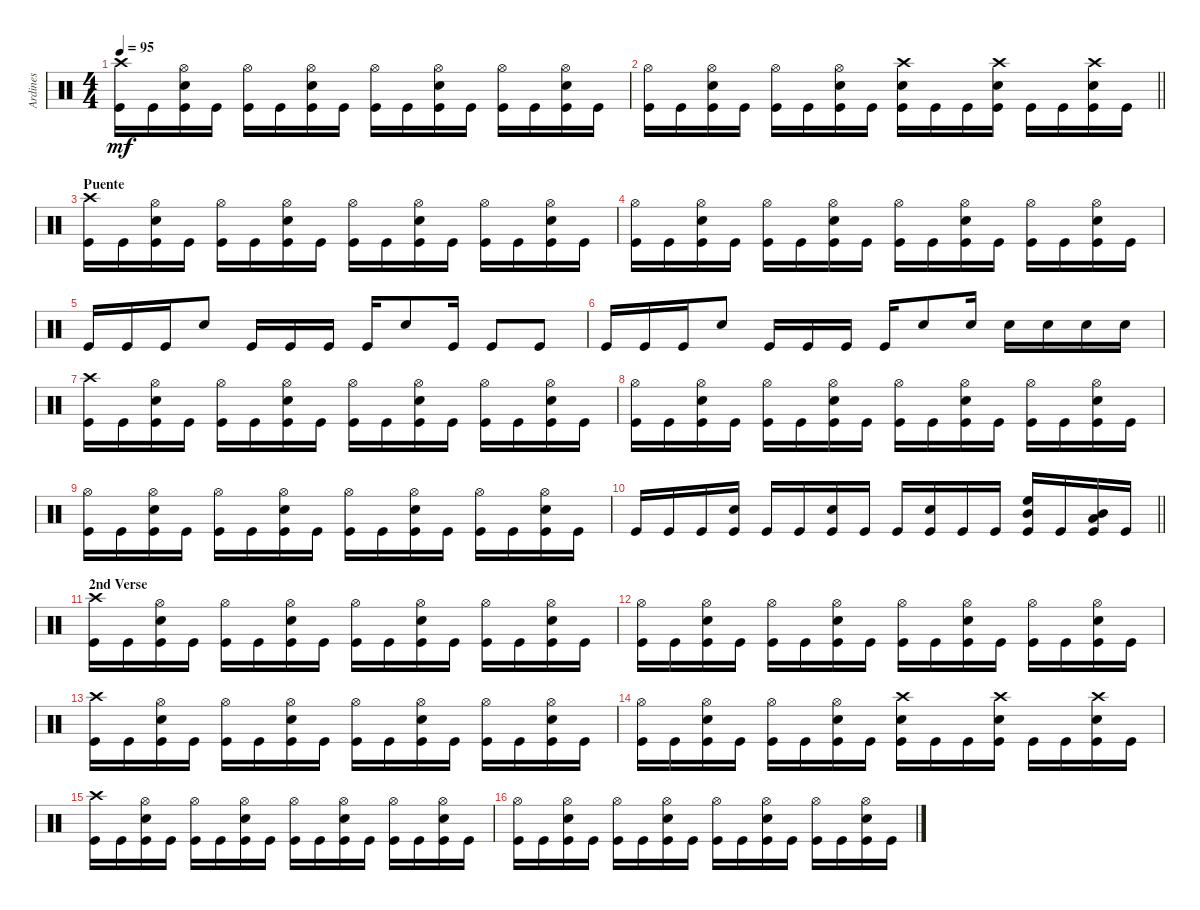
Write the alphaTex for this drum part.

\track ("Ardines" "Ardines") {instrument percussion}
\staff {score}
\articulation defaults
\ts (4 4)
\tempo 95
\clef neutral
\ks c
("Crash high (hit)" "Kick (hit)").16{dy mf} "Kick (hit)".16 ("Hi-Hat (open)" "Snare (hit) 2" "Kick (hit)").16 "Kick (hit)".16 ("Hi-Hat (open)" "Kick (hit)").16 "Kick (hit)".16 ("Hi-Hat (open)" "Snare (hit) 2" "Kick (hit)").16 "Kick (hit)".16 ("Hi-Hat (open)" "Kick (hit)").16 "Kick (hit)".16 ("Hi-Hat (open)" "Snare (hit) 2" "Kick (hit)").16 "Kick (hit)".16 ("Hi-Hat (open)" "Kick (hit)").16 "Kick (hit)".16 ("Hi-Hat (open)" "Snare (hit) 2" "Kick (hit)").16 "Kick (hit)".16 |
\barLineRight lightlight
("Hi-Hat (open)" "Kick (hit)").16 "Kick (hit)".16 ("Hi-Hat (open)" "Snare (hit) 2" "Kick (hit)").16 "Kick (hit)".16 ("Hi-Hat (open)" "Kick (hit)").16 "Kick (hit)".16 ("Hi-Hat (open)" "Snare (hit) 2" "Kick (hit)").16 "Kick (hit)".16 ("Crash high (hit)" "Snare (hit) 2" "Kick (hit)").16 "Kick (hit)".16 "Kick (hit)".16 ("Crash high (hit)" "Snare (hit) 2" "Kick (hit)").16 "Kick (hit)".16 "Kick (hit)".16 ("Crash high (hit)" "Snare (hit) 2" "Kick (hit)").16 "Kick (hit)".16 |
\section ("" "Puente")
("Crash high (hit)" "Kick (hit)").16 "Kick (hit)".16 ("Hi-Hat (open)" "Snare (hit) 2" "Kick (hit)").16 "Kick (hit)".16 ("Hi-Hat (open)" "Kick (hit)").16 "Kick (hit)".16 ("Hi-Hat (open)" "Snare (hit) 2" "Kick (hit)").16 "Kick (hit)".16 ("Hi-Hat (open)" "Kick (hit)").16 "Kick (hit)".16 ("Hi-Hat (open)" "Snare (hit) 2" "Kick (hit)").16 "Kick (hit)".16 ("Hi-Hat (open)" "Kick (hit)").16 "Kick (hit)".16 ("Hi-Hat (open)" "Snare (hit) 2" "Kick (hit)").16 "Kick (hit)".16 |
("Hi-Hat (open)" "Kick (hit)").16 "Kick (hit)".16 ("Hi-Hat (open)" "Snare (hit) 2" "Kick (hit)").16 "Kick (hit)".16 ("Hi-Hat (open)" "Kick (hit)").16 "Kick (hit)".16 ("Hi-Hat (open)" "Snare (hit) 2" "Kick (hit)").16 "Kick (hit)".16 ("Hi-Hat (open)" "Kick (hit)").16 "Kick (hit)".16 ("Hi-Hat (open)" "Snare (hit) 2" "Kick (hit)").16 "Kick (hit)".16 ("Hi-Hat (open)" "Kick (hit)").16 "Kick (hit)".16 ("Hi-Hat (open)" "Snare (hit) 2" "Kick (hit)").16 "Kick (hit)".16 |
"Kick (hit)".16 "Kick (hit)".16 "Kick (hit)".16 "Snare (hit) 2".8 "Kick (hit)".16 "Kick (hit)".16 "Kick (hit)".16 "Kick (hit)".16 "Snare (hit) 2".8 "Kick (hit)".16 "Kick (hit)".8 "Kick (hit)".8 |
"Kick (hit)".16 "Kick (hit)".16 "Kick (hit)".16 "Snare (hit) 2".8 "Kick (hit)".16 "Kick (hit)".16 "Kick (hit)".16 "Kick (hit)".16 "Snare (hit) 2".8 "Snare (hit) 2".16 "Snare (hit) 2".16 "Snare (hit) 2".16 "Snare (hit) 2".16 "Snare (hit) 2".16 |
("Crash high (hit)" "Kick (hit)").16 "Kick (hit)".16 ("Hi-Hat (open)" "Snare (hit) 2" "Kick (hit)").16 "Kick (hit)".16 ("Hi-Hat (open)" "Kick (hit)").16 "Kick (hit)".16 ("Hi-Hat (open)" "Snare (hit) 2" "Kick (hit)").16 "Kick (hit)".16 ("Hi-Hat (open)" "Kick (hit)").16 "Kick (hit)".16 ("Hi-Hat (open)" "Snare (hit) 2" "Kick (hit)").16 "Kick (hit)".16 ("Hi-Hat (open)" "Kick (hit)").16 "Kick (hit)".16 ("Hi-Hat (open)" "Snare (hit) 2" "Kick (hit)").16 "Kick (hit)".16 |
("Hi-Hat (open)" "Kick (hit)").16 "Kick (hit)".16 ("Hi-Hat (open)" "Snare (hit) 2" "Kick (hit)").16 "Kick (hit)".16 ("Hi-Hat (open)" "Kick (hit)").16 "Kick (hit)".16 ("Hi-Hat (open)" "Snare (hit) 2" "Kick (hit)").16 "Kick (hit)".16 ("Hi-Hat (open)" "Kick (hit)").16 "Kick (hit)".16 ("Hi-Hat (open)" "Snare (hit) 2" "Kick (hit)").16 "Kick (hit)".16 ("Hi-Hat (open)" "Kick (hit)").16 "Kick (hit)".16 ("Hi-Hat (open)" "Snare (hit) 2" "Kick (hit)").16 "Kick (hit)".16 |
("Hi-Hat (open)" "Kick (hit)").16 "Kick (hit)".16 ("Hi-Hat (open)" "Snare (hit) 2" "Kick (hit)").16 "Kick (hit)".16 ("Hi-Hat (open)" "Kick (hit)").16 "Kick (hit)".16 ("Hi-Hat (open)" "Snare (hit) 2" "Kick (hit)").16 "Kick (hit)".16 ("Hi-Hat (open)" "Kick (hit)").16 "Kick (hit)".16 ("Hi-Hat (open)" "Snare (hit) 2" "Kick (hit)").16 "Kick (hit)".16 ("Hi-Hat (open)" "Kick (hit)").16 "Kick (hit)".16 ("Hi-Hat (open)" "Snare (hit) 2" "Kick (hit)").16 "Kick (hit)".16 |
\barLineRight lightlight "Kick (hit)".16 "Kick (hit)".16 "Kick (hit)".16
("Snare (hit) 2" "Kick (hit)").16 "Kick (hit)".16 "Kick (hit)".16 ("Snare (hit) 2" "Kick (hit)").16 "Kick (hit)".16 "Kick (hit)".16 ("Snare (hit) 2" "Kick (hit)").16 "Kick (hit)".16 "Kick (hit)".16 ("High Floor Tom (hit)" "Mid Tom (hit)" "Kick (hit)").16 "Kick (hit)".16 ("Mid Tom (hit)" "Low Tom (hit)" "Kick (hit)").16 "Kick (hit)".16 |
\section ("" "2nd Verse")
("Crash high (hit)" "Kick (hit)").16 "Kick (hit)".16 ("Hi-Hat (open)" "Snare (hit) 2" "Kick (hit)").16 "Kick (hit)".16 ("Hi-Hat (open)" "Kick (hit)").16 "Kick (hit)".16 ("Hi-Hat (open)" "Snare (hit) 2" "Kick (hit)").16 "Kick (hit)".16 ("Hi-Hat (open)" "Kick (hit)").16 "Kick (hit)".16 ("Hi-Hat (open)" "Snare (hit) 2" "Kick (hit)").16 "Kick (hit)".16 ("Hi-Hat (open)" "Kick (hit)").16 "Kick (hit)".16 ("Hi-Hat (open)" "Snare (hit) 2" "Kick (hit)").16 "Kick (hit)".16 |
("Hi-Hat (open)" "Kick (hit)").16 "Kick (hit)".16 ("Hi-Hat (open)" "Snare (hit) 2" "Kick (hit)").16 "Kick (hit)".16 ("Hi-Hat (open)" "Kick (hit)").16 "Kick (hit)".16 ("Hi-Hat (open)" "Snare (hit) 2" "Kick (hit)").16 "Kick (hit)".16 ("Hi-Hat (open)" "Kick (hit)").16 "Kick (hit)".16 ("Hi-Hat (open)" "Snare (hit) 2" "Kick (hit)").16 "Kick (hit)".16 ("Hi-Hat (open)" "Kick (hit)").16 "Kick (hit)".16 ("Hi-Hat (open)" "Snare (hit) 2" "Kick (hit)").16 "Kick (hit)".16 |
("Crash high (hit)" "Kick (hit)").16 "Kick (hit)".16 ("Hi-Hat (open)" "Snare (hit) 2" "Kick (hit)").16 "Kick (hit)".16 ("Hi-Hat (open)" "Kick (hit)").16 "Kick (hit)".16 ("Hi-Hat (open)" "Snare (hit) 2" "Kick (hit)").16 "Kick (hit)".16 ("Hi-Hat (open)" "Kick (hit)").16 "Kick (hit)".16 ("Hi-Hat (open)" "Snare (hit) 2" "Kick (hit)").16 "Kick (hit)".16 ("Hi-Hat (open)" "Kick (hit)").16 "Kick (hit)".16 ("Hi-Hat (open)" "Snare (hit) 2" "Kick (hit)").16 "Kick (hit)".16 |
("Hi-Hat (open)" "Kick (hit)").16 "Kick (hit)".16 ("Hi-Hat (open)" "Snare (hit) 2" "Kick (hit)").16 "Kick (hit)".16 ("Hi-Hat (open)" "Kick (hit)").16 "Kick (hit)".16 ("Hi-Hat (open)" "Snare (hit) 2" "Kick (hit)").16 "Kick (hit)".16 ("Crash high (hit)" "Snare (hit) 2" "Kick (hit)").16 "Kick (hit)".16 "Kick (hit)".16 ("Crash high (hit)" "Snare (hit) 2" "Kick (hit)").16 "Kick (hit)".16 "Kick (hit)".16 ("Crash high (hit)" "Snare (hit) 2" "Kick (hit)").16 "Kick (hit)".16 |
("Crash high (hit)" "Kick (hit)").16 "Kick (hit)".16 ("Hi-Hat (open)" "Snare (hit) 2" "Kick (hit)").16 "Kick (hit)".16 ("Hi-Hat (open)" "Kick (hit)").16 "Kick (hit)".16 ("Hi-Hat (open)" "Snare (hit) 2" "Kick (hit)").16 "Kick (hit)".16 ("Hi-Hat (open)" "Kick (hit)").16 "Kick (hit)".16 ("Hi-Hat (open)" "Snare (hit) 2" "Kick (hit)").16 "Kick (hit)".16 ("Hi-Hat (open)" "Kick (hit)").16 "Kick (hit)".16 ("Hi-Hat (open)" "Snare (hit) 2" "Kick (hit)").16 "Kick (hit)".16 |
("Hi-Hat (open)" "Kick (hit)").16 "Kick (hit)".16 ("Hi-Hat (open)" "Snare (hit) 2" "Kick (hit)").16 "Kick (hit)".16 ("Hi-Hat (open)" "Kick (hit)").16 "Kick (hit)".16 ("Hi-Hat (open)" "Snare (hit) 2" "Kick (hit)").16 "Kick (hit)".16 ("Hi-Hat (open)" "Kick (hit)").16 "Kick (hit)".16 ("Hi-Hat (open)" "Snare (hit) 2" "Kick (hit)").16 "Kick (hit)".16 ("Hi-Hat (open)" "Kick (hit)").16 "Kick (hit)".16 ("Hi-Hat (open)" "Snare (hit) 2" "Kick (hit)").16 "Kick (hit)".16
